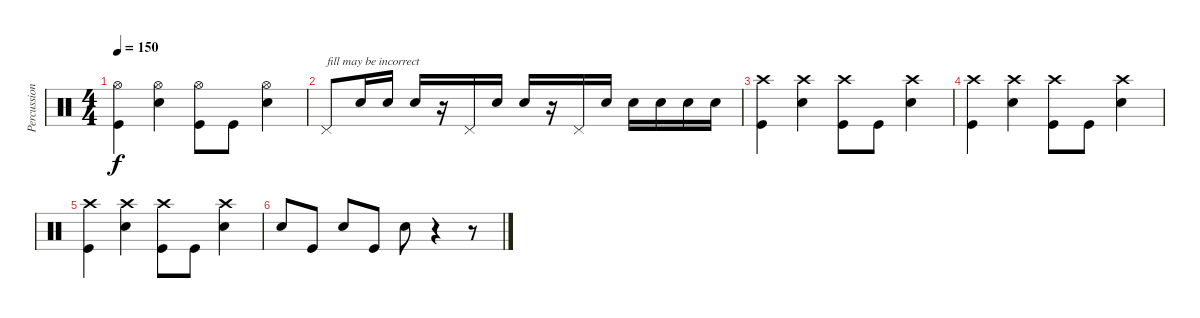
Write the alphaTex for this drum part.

\track ("Percussion" "Percussion") {instrument percussion}
\staff {score}
\articulation defaults
\ts (4 4)
\tempo 150
\clef neutral
\ks c
("Hi-Hat (open)" "Kick (hit)").4{dy f} ("Hi-Hat (open)" "Electric Snare (hit)").4 ("Hi-Hat (open)" "Kick (hit)").8 "Kick (hit)".8 ("Hi-Hat (open)" "Electric Snare (hit)").4 |
"Pedal Hi-Hat (hit)".8{txt "fill may be incorrect"} "Electric Snare (hit)".16 "Electric Snare (hit)".16 "Electric Snare (hit)".16 r.16 "Pedal Hi-Hat (hit)".16 "Electric Snare (hit)".16 "Electric Snare (hit)".16 r.16 "Pedal Hi-Hat (hit)".16 "Electric Snare (hit)".16 "Electric Snare (hit)".16 "Electric Snare (hit)".16 "Electric Snare (hit)".16 "Electric Snare (hit)".16 |
("Crash high (hit)" "Kick (hit)").4 ("Crash high (hit)" "Electric Snare (hit)").4 ("Crash high (hit)" "Kick (hit)").8 "Kick (hit)".8 ("Crash high (hit)" "Electric Snare (hit)").4 |
("Crash high (hit)" "Kick (hit)").4 ("Crash high (hit)" "Electric Snare (hit)").4 ("Crash high (hit)" "Kick (hit)").8 "Kick (hit)".8 ("Crash high (hit)" "Electric Snare (hit)").4 |
("Crash high (hit)" "Kick (hit)").4 ("Crash high (hit)" "Electric Snare (hit)").4 ("Crash high (hit)" "Kick (hit)").8 "Kick (hit)".8 ("Crash high (hit)" "Electric Snare (hit)").4 |
"Electric Snare (hit)".8 "Kick (hit)".8 "Electric Snare (hit)".8 "Kick (hit)".8 "Electric Snare (hit)".8 r.4 r.8
